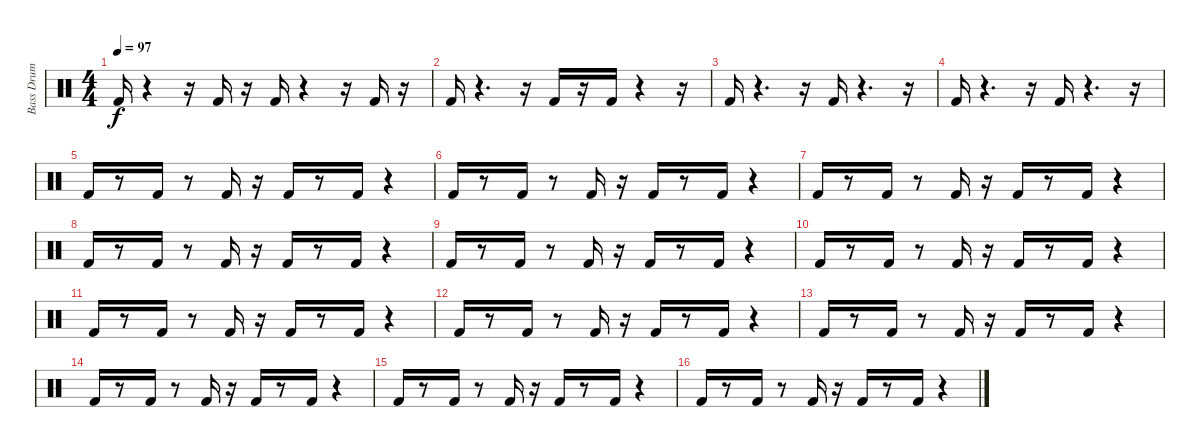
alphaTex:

\track ("Bass Drum" "Bass Drum") {instrument percussion}
\staff {score}
\articulation defaults
\ts (4 4)
\tempo 97
\clef neutral
\ks c "Kick (hit) 2".16{dy f}
r.4 r.16 "Kick (hit) 2".16 r.16 "Kick (hit) 2".16 r.4 r.16 "Kick (hit) 2".16 r.16 |
"Kick (hit) 2".16 r.4{d} r.16 "Kick (hit) 2".16 r.16 "Kick (hit) 2".16 r.4 r.16 |
"Kick (hit) 2".16 r.4{d} r.16 "Kick (hit) 2".16 r.4{d} r.16 |
"Kick (hit) 2".16 r.4{d} r.16 "Kick (hit) 2".16 r.4{d} r.16 |
"Kick (hit) 2".16 r.8 "Kick (hit) 2".16 r.8 "Kick (hit) 2".16 r.16 "Kick (hit) 2".16 r.8 "Kick (hit) 2".16 r.4 |
"Kick (hit) 2".16 r.8 "Kick (hit) 2".16 r.8 "Kick (hit) 2".16 r.16 "Kick (hit) 2".16 r.8 "Kick (hit) 2".16 r.4 |
"Kick (hit) 2".16 r.8 "Kick (hit) 2".16 r.8 "Kick (hit) 2".16 r.16 "Kick (hit) 2".16 r.8 "Kick (hit) 2".16 r.4 |
"Kick (hit) 2".16 r.8 "Kick (hit) 2".16 r.8 "Kick (hit) 2".16 r.16 "Kick (hit) 2".16 r.8 "Kick (hit) 2".16 r.4 |
"Kick (hit) 2".16 r.8 "Kick (hit) 2".16 r.8 "Kick (hit) 2".16 r.16 "Kick (hit) 2".16 r.8 "Kick (hit) 2".16 r.4 |
"Kick (hit) 2".16 r.8 "Kick (hit) 2".16 r.8 "Kick (hit) 2".16 r.16 "Kick (hit) 2".16 r.8 "Kick (hit) 2".16 r.4 |
"Kick (hit) 2".16 r.8 "Kick (hit) 2".16 r.8 "Kick (hit) 2".16 r.16 "Kick (hit) 2".16 r.8 "Kick (hit) 2".16 r.4 |
"Kick (hit) 2".16 r.8 "Kick (hit) 2".16 r.8 "Kick (hit) 2".16 r.16 "Kick (hit) 2".16 r.8 "Kick (hit) 2".16 r.4 |
"Kick (hit) 2".16 r.8 "Kick (hit) 2".16 r.8 "Kick (hit) 2".16 r.16 "Kick (hit) 2".16 r.8 "Kick (hit) 2".16 r.4 |
"Kick (hit) 2".16 r.8 "Kick (hit) 2".16 r.8 "Kick (hit) 2".16 r.16 "Kick (hit) 2".16 r.8 "Kick (hit) 2".16 r.4 |
"Kick (hit) 2".16 r.8 "Kick (hit) 2".16 r.8 "Kick (hit) 2".16 r.16 "Kick (hit) 2".16 r.8 "Kick (hit) 2".16 r.4 |
"Kick (hit) 2".16 r.8 "Kick (hit) 2".16 r.8 "Kick (hit) 2".16 r.16 "Kick (hit) 2".16 r.8 "Kick (hit) 2".16 r.4
